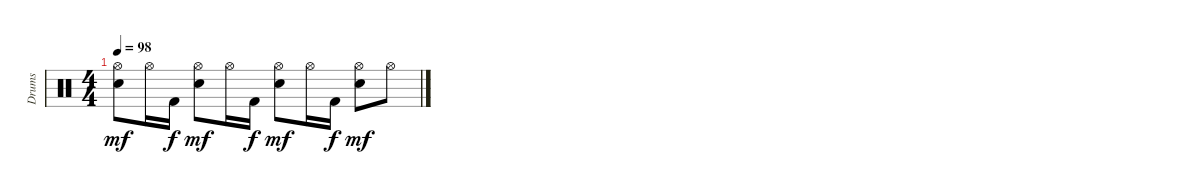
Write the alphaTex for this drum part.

\track ("Drums" "Drums") {instrument percussion}
\staff {score}
\articulation defaults
\ts (4 4)
\tempo 98
\clef neutral
\ks c
("Hi-Hat (open)" "Electric Snare (hit)").8{dy mf} "Hi-Hat (open)".16 "Kick (hit) 2".16{dy f} ("Hi-Hat (open)" "Electric Snare (hit)").8{dy mf} "Hi-Hat (open)".16 "Kick (hit) 2".16{dy f} ("Hi-Hat (open)" "Electric Snare (hit)").8{dy mf} "Hi-Hat (open)".16 "Kick (hit) 2".16{dy f} ("Hi-Hat (open)" "Electric Snare (hit)").8{dy mf} "Hi-Hat (open)".8
